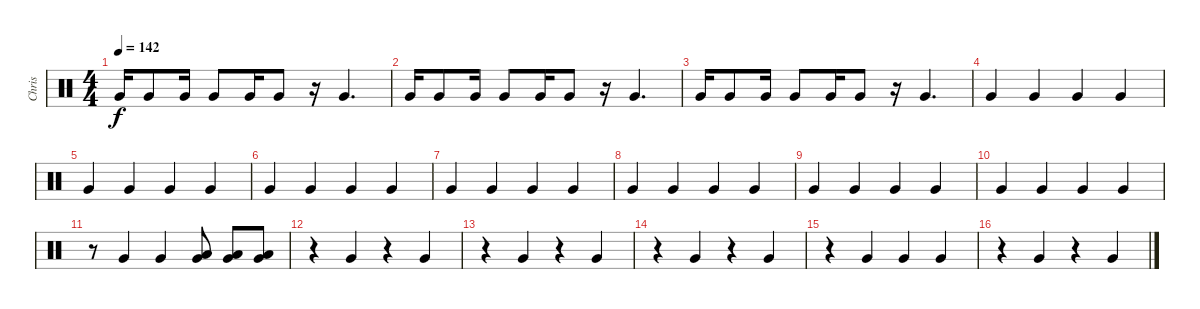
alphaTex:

\track ("Chris" "Chris") {instrument percussion}
\staff {score}
\articulation defaults
\ts (4 4)
\tempo 142
\clef neutral
\ks c "Very Low Tom (hit)".16{dy f} "Very Low Tom (hit)".8 "Very Low Tom (hit)".16 "Very Low Tom (hit)".8 "Very Low Tom (hit)".16 "Very Low Tom (hit)".8
r.16 "Very Low Tom (hit)".4{d} |
"Very Low Tom (hit)".16 "Very Low Tom (hit)".8 "Very Low Tom (hit)".16 "Very Low Tom (hit)".8 "Very Low Tom (hit)".16 "Very Low Tom (hit)".8 r.16 "Very Low Tom (hit)".4{d} |
"Very Low Tom (hit)".16 "Very Low Tom (hit)".8 "Very Low Tom (hit)".16 "Very Low Tom (hit)".8 "Very Low Tom (hit)".16 "Very Low Tom (hit)".8 r.16 "Very Low Tom (hit)".4{d} |
"Very Low Tom (hit)".4 "Very Low Tom (hit)".4 "Very Low Tom (hit)".4 "Very Low Tom (hit)".4 |
"Very Low Tom (hit)".4 "Very Low Tom (hit)".4 "Very Low Tom (hit)".4 "Very Low Tom (hit)".4 |
"Very Low Tom (hit)".4 "Very Low Tom (hit)".4 "Very Low Tom (hit)".4 "Very Low Tom (hit)".4 |
"Very Low Tom (hit)".4 "Very Low Tom (hit)".4 "Very Low Tom (hit)".4 "Very Low Tom (hit)".4 |
"Very Low Tom (hit)".4 "Very Low Tom (hit)".4 "Very Low Tom (hit)".4 "Very Low Tom (hit)".4 |
"Very Low Tom (hit)".4 "Very Low Tom (hit)".4 "Very Low Tom (hit)".4 "Very Low Tom (hit)".4 |
"Very Low Tom (hit)".4 "Very Low Tom (hit)".4 "Very Low Tom (hit)".4 "Very Low Tom (hit)".4 |
r.8 "Very Low Tom (hit)".4 "Very Low Tom (hit)".4 ("Very Low Tom (hit)" "Low Floor Tom (hit)").8 ("Very Low Tom (hit)" "Low Floor Tom (hit)").8 ("Very Low Tom (hit)" "Low Floor Tom (hit)").8 |
r.4 "Very Low Tom (hit)".4 r.4 "Very Low Tom (hit)".4 |
r.4 "Very Low Tom (hit)".4 r.4 "Very Low Tom (hit)".4 |
r.4 "Very Low Tom (hit)".4 r.4 "Very Low Tom (hit)".4 |
r.4 "Very Low Tom (hit)".4 "Very Low Tom (hit)".4 "Very Low Tom (hit)".4 |
r.4 "Very Low Tom (hit)".4 r.4 "Very Low Tom (hit)".4
